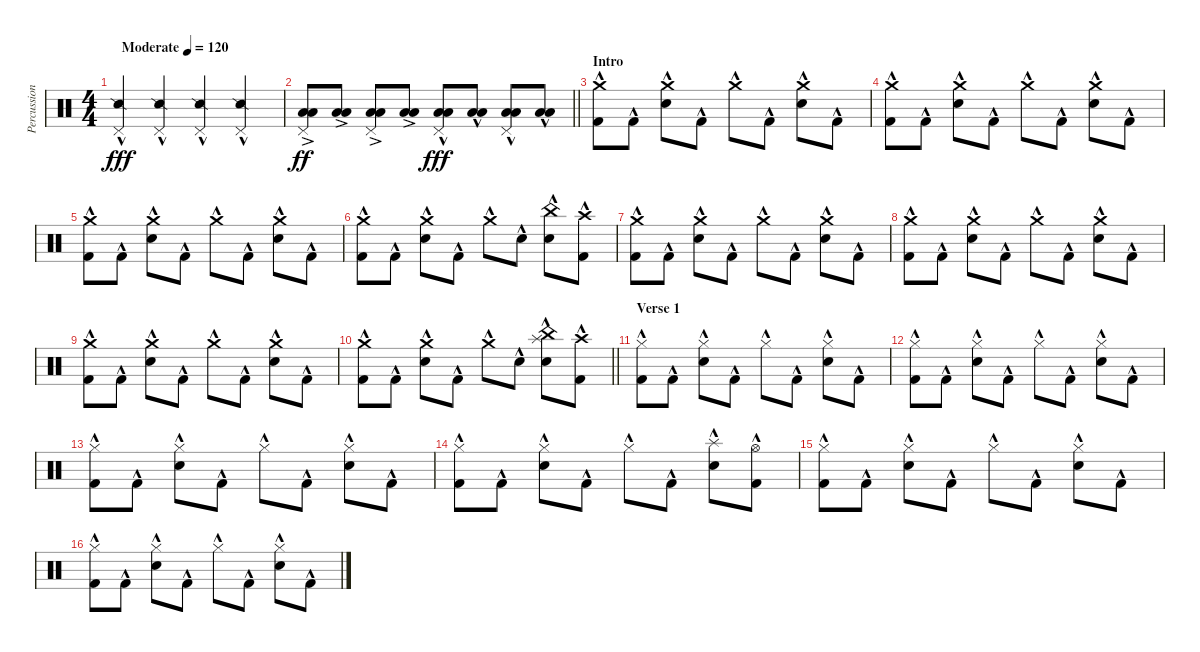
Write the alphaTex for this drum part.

\track ("Percussion" "Percussion") {instrument percussion}
\staff {score}
\articulation defaults
\ts (4 4)
\tempo (120 "Moderate")
\clef neutral
\ks c
("Snare (side stick) 2"{hac} "Pedal Hi-Hat (hit)"{hac}).4{dy fff} ("Snare (side stick) 2"{hac} "Pedal Hi-Hat (hit)"{hac}).4 ("Snare (side stick) 2"{hac} "Pedal Hi-Hat (hit)"{hac}).4 ("Snare (side stick) 2"{hac} "Pedal Hi-Hat (hit)"{hac}).4 |
\barLineRight lightlight
("Pedal Hi-Hat (hit)"{ac} "Low Tom (hit)"{ac} "Low Floor Tom (hit)"{ac}).8{dy ff} ("Low Tom (hit)"{ac} "Low Floor Tom (hit)"{ac}).8 ("Pedal Hi-Hat (hit)"{ac} "Low Tom (hit)"{ac} "Low Floor Tom (hit)"{ac}).8 ("Low Tom (hit)"{ac} "Low Floor Tom (hit)"{ac}).8 ("Pedal Hi-Hat (hit)" "Low Tom (hit)"{hac} "Low Floor Tom (hit)"{hac}).8{dy fff} ("Low Tom (hit)"{hac} "Low Floor Tom (hit)"{hac}).8 ("Pedal Hi-Hat (hit)" "Low Tom (hit)"{hac} "Low Floor Tom (hit)"{hac}).8 ("Low Tom (hit)"{hac} "Low Floor Tom (hit)"{hac}).8 |
\section ("" "Intro ")
("Crash medium (hit)"{hac} "Kick (hit) 2"{hac}).8 "Kick (hit) 2"{hac}.8 ("Crash medium (hit)"{hac} "Electric Snare (hit)"{hac}).8 "Kick (hit) 2"{hac}.8 "Crash medium (hit)"{hac}.8 "Kick (hit) 2"{hac}.8 ("Crash medium (hit)"{hac} "Electric Snare (hit)"{hac}).8 "Kick (hit) 2"{hac}.8 |
("Crash medium (hit)"{hac} "Kick (hit) 2"{hac}).8 "Kick (hit) 2"{hac}.8 ("Crash medium (hit)"{hac} "Electric Snare (hit)"{hac}).8 "Kick (hit) 2"{hac}.8 "Crash medium (hit)"{hac}.8 "Kick (hit) 2"{hac}.8 ("Crash medium (hit)"{hac} "Electric Snare (hit)"{hac}).8 "Kick (hit) 2"{hac}.8 |
("Crash medium (hit)"{hac} "Kick (hit) 2"{hac}).8 "Kick (hit) 2"{hac}.8 ("Crash medium (hit)"{hac} "Electric Snare (hit)"{hac}).8 "Kick (hit) 2"{hac}.8 "Crash medium (hit)"{hac}.8 "Kick (hit) 2"{hac}.8 ("Crash medium (hit)"{hac} "Electric Snare (hit)"{hac}).8 "Kick (hit) 2"{hac}.8 |
("Crash medium (hit)"{hac} "Kick (hit) 2"{hac}).8 "Kick (hit) 2"{hac}.8 ("Crash medium (hit)"{hac} "Electric Snare (hit)"{hac}).8 "Kick (hit) 2"{hac}.8 "Crash medium (hit)"{hac}.8 "Snare (hit) 2"{hac}.8 ("China (hit)"{hac} "Electric Snare (hit)"{hac}).8 ("Crash high (hit)"{hac} "Kick (hit) 2"{hac}).8 |
("Crash medium (hit)"{hac} "Kick (hit) 2"{hac}).8 "Kick (hit) 2"{hac}.8 ("Crash medium (hit)"{hac} "Electric Snare (hit)"{hac}).8 "Kick (hit) 2"{hac}.8 "Crash medium (hit)"{hac}.8 "Kick (hit) 2"{hac}.8 ("Crash medium (hit)"{hac} "Electric Snare (hit)"{hac}).8 "Kick (hit) 2"{hac}.8 |
("Crash medium (hit)"{hac} "Kick (hit) 2"{hac}).8 "Kick (hit) 2"{hac}.8 ("Crash medium (hit)"{hac} "Electric Snare (hit)"{hac}).8 "Kick (hit) 2"{hac}.8 "Crash medium (hit)"{hac}.8 "Kick (hit) 2"{hac}.8 ("Crash medium (hit)"{hac} "Electric Snare (hit)"{hac}).8 "Kick (hit) 2"{hac}.8 |
("Crash medium (hit)"{hac} "Kick (hit) 2"{hac}).8 "Kick (hit) 2"{hac}.8 ("Crash medium (hit)"{hac} "Electric Snare (hit)"{hac}).8 "Kick (hit) 2"{hac}.8 "Crash medium (hit)"{hac}.8 "Kick (hit) 2"{hac}.8 ("Crash medium (hit)"{hac} "Electric Snare (hit)"{hac}).8 "Kick (hit) 2"{hac}.8 |
\barLineRight lightlight
("Crash medium (hit)"{hac} "Kick (hit) 2"{hac}).8 "Kick (hit) 2"{hac}.8 ("Crash medium (hit)"{hac} "Electric Snare (hit)"{hac}).8 "Kick (hit) 2"{hac}.8 "Crash medium (hit)"{hac}.8 "Snare (hit) 2"{hac}.8 ("China (hit)"{hac} "Splash (hit)"{hac} "Electric Snare (hit)"{hac}).8 ("Crash high (hit)"{hac} "Kick (hit) 2"{hac}).8 |
\section ("" "Verse 1")
("Hi-Hat (closed)"{hac} "Kick (hit) 2"{hac}).8 "Kick (hit) 2"{hac}.8 ("Hi-Hat (closed)"{hac} "Electric Snare (hit)"{hac}).8 "Kick (hit) 2"{hac}.8 "Hi-Hat (closed)"{hac}.8 "Kick (hit) 2"{hac}.8 ("Hi-Hat (closed)"{hac} "Electric Snare (hit)"{hac}).8 "Kick (hit) 2"{hac}.8 |
("Hi-Hat (closed)"{hac} "Kick (hit) 2"{hac}).8 "Kick (hit) 2"{hac}.8 ("Hi-Hat (closed)"{hac} "Electric Snare (hit)"{hac}).8 "Kick (hit) 2"{hac}.8 "Hi-Hat (closed)"{hac}.8 "Kick (hit) 2"{hac}.8 ("Hi-Hat (closed)"{hac} "Electric Snare (hit)"{hac}).8 "Kick (hit) 2"{hac}.8 |
("Hi-Hat (closed)"{hac} "Kick (hit) 2"{hac}).8 "Kick (hit) 2"{hac}.8 ("Hi-Hat (closed)"{hac} "Electric Snare (hit)"{hac}).8 "Kick (hit) 2"{hac}.8 "Hi-Hat (closed)"{hac}.8 "Kick (hit) 2"{hac}.8 ("Hi-Hat (closed)"{hac} "Electric Snare (hit)"{hac}).8 "Kick (hit) 2"{hac}.8 |
("Hi-Hat (closed)"{hac} "Kick (hit) 2"{hac}).8 "Kick (hit) 2"{hac}.8 ("Hi-Hat (closed)"{hac} "Electric Snare (hit)"{hac}).8 "Kick (hit) 2"{hac}.8 "Hi-Hat (closed)"{hac}.8 "Kick (hit) 2"{hac}.8 ("Splash (hit)"{hac} "Electric Snare (hit)"{hac}).8 ("Hi-Hat (open)"{hac} "Kick (hit) 2"{hac}).8 |
("Hi-Hat (closed)"{hac} "Kick (hit) 2"{hac}).8 "Kick (hit) 2"{hac}.8 ("Hi-Hat (closed)"{hac} "Electric Snare (hit)"{hac}).8 "Kick (hit) 2"{hac}.8 "Hi-Hat (closed)"{hac}.8 "Kick (hit) 2"{hac}.8 ("Hi-Hat (closed)"{hac} "Electric Snare (hit)"{hac}).8 "Kick (hit) 2"{hac}.8 |
("Hi-Hat (closed)"{hac} "Kick (hit) 2"{hac}).8 "Kick (hit) 2"{hac}.8 ("Hi-Hat (closed)"{hac} "Electric Snare (hit)"{hac}).8 "Kick (hit) 2"{hac}.8 "Hi-Hat (closed)"{hac}.8 "Kick (hit) 2"{hac}.8 ("Hi-Hat (closed)"{hac} "Electric Snare (hit)"{hac}).8 "Kick (hit) 2"{hac}.8
